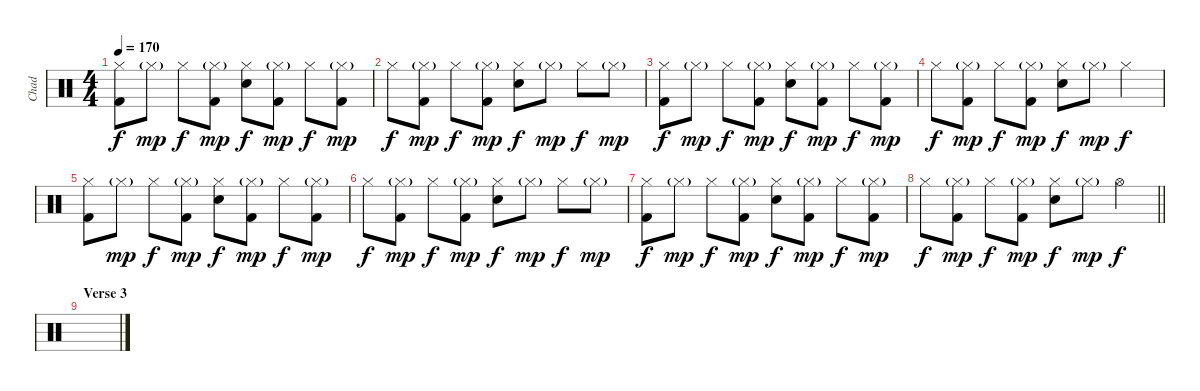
\track ("Chad" "Chad") {instrument percussion}
\staff {score}
\articulation defaults
\ts (4 4)
\tempo 170
\clef neutral
\ks c
("Hi-Hat (closed)" "Kick (hit) 2").8{dy f} "Hi-Hat (closed)"{g}.8{dy mp} "Hi-Hat (closed)".8{dy f} ("Hi-Hat (closed)"{g} "Kick (hit) 2").8{dy mp} ("Hi-Hat (closed)" "Snare (hit) 2").8{dy f} ("Hi-Hat (closed)"{g} "Kick (hit) 2").8{dy mp} "Hi-Hat (closed)".8{dy f} ("Hi-Hat (closed)"{g} "Kick (hit) 2").8{dy mp} |
"Hi-Hat (closed)".8{dy f} ("Hi-Hat (closed)"{g} "Kick (hit) 2").8{dy mp} "Hi-Hat (closed)".8{dy f} ("Hi-Hat (closed)"{g} "Kick (hit) 2").8{dy mp} ("Hi-Hat (closed)" "Snare (hit) 2").8{dy f} "Hi-Hat (closed)"{g}.8{dy mp} "Hi-Hat (closed)".8{dy f} "Hi-Hat (closed)"{g}.8{dy mp} |
("Hi-Hat (closed)" "Kick (hit) 2").8{dy f} "Hi-Hat (closed)"{g}.8{dy mp} "Hi-Hat (closed)".8{dy f} ("Hi-Hat (closed)"{g} "Kick (hit) 2").8{dy mp} ("Hi-Hat (closed)" "Snare (hit) 2").8{dy f} ("Hi-Hat (closed)"{g} "Kick (hit) 2").8{dy mp} "Hi-Hat (closed)".8{dy f} ("Hi-Hat (closed)"{g} "Kick (hit) 2").8{dy mp} |
"Hi-Hat (closed)".8{dy f} ("Hi-Hat (closed)"{g} "Kick (hit) 2").8{dy mp} "Hi-Hat (closed)".8{dy f} ("Hi-Hat (closed)"{g} "Kick (hit) 2").8{dy mp} ("Hi-Hat (closed)" "Snare (hit) 2").8{dy f} "Hi-Hat (closed)"{g}.8{dy mp} "Hi-Hat (closed)".4{dy f volume 16} |
("Hi-Hat (closed)" "Kick (hit) 2").8{volume 12} "Hi-Hat (closed)"{g}.8{dy mp} "Hi-Hat (closed)".8{dy f} ("Hi-Hat (closed)"{g} "Kick (hit) 2").8{dy mp} ("Hi-Hat (closed)" "Snare (hit) 2").8{dy f} ("Hi-Hat (closed)"{g} "Kick (hit) 2").8{dy mp} "Hi-Hat (closed)".8{dy f} ("Hi-Hat (closed)"{g} "Kick (hit) 2").8{dy mp} |
"Hi-Hat (closed)".8{dy f} ("Hi-Hat (closed)"{g} "Kick (hit) 2").8{dy mp} "Hi-Hat (closed)".8{dy f} ("Hi-Hat (closed)"{g} "Kick (hit) 2").8{dy mp} ("Hi-Hat (closed)" "Snare (hit) 2").8{dy f} "Hi-Hat (closed)"{g}.8{dy mp} "Hi-Hat (closed)".8{dy f} "Hi-Hat (closed)"{g}.8{dy mp} |
("Hi-Hat (closed)" "Kick (hit) 2").8{dy f} "Hi-Hat (closed)"{g}.8{dy mp} "Hi-Hat (closed)".8{dy f} ("Hi-Hat (closed)"{g} "Kick (hit) 2").8{dy mp} ("Hi-Hat (closed)" "Snare (hit) 2").8{dy f} ("Hi-Hat (closed)"{g} "Kick (hit) 2").8{dy mp} "Hi-Hat (closed)".8{dy f} ("Hi-Hat (closed)"{g} "Kick (hit) 2").8{dy mp} |
\barLineRight lightlight "Hi-Hat (closed)".8{dy f}
("Hi-Hat (closed)"{g} "Kick (hit) 2").8{dy mp} "Hi-Hat (closed)".8{dy f} ("Hi-Hat (closed)"{g} "Kick (hit) 2").8{dy mp} ("Hi-Hat (closed)" "Snare (hit) 2").8{dy f} "Hi-Hat (closed)"{g}.8{dy mp} "Hi-Hat (open)".4{dy f} |
\section ("" "Verse 3")
